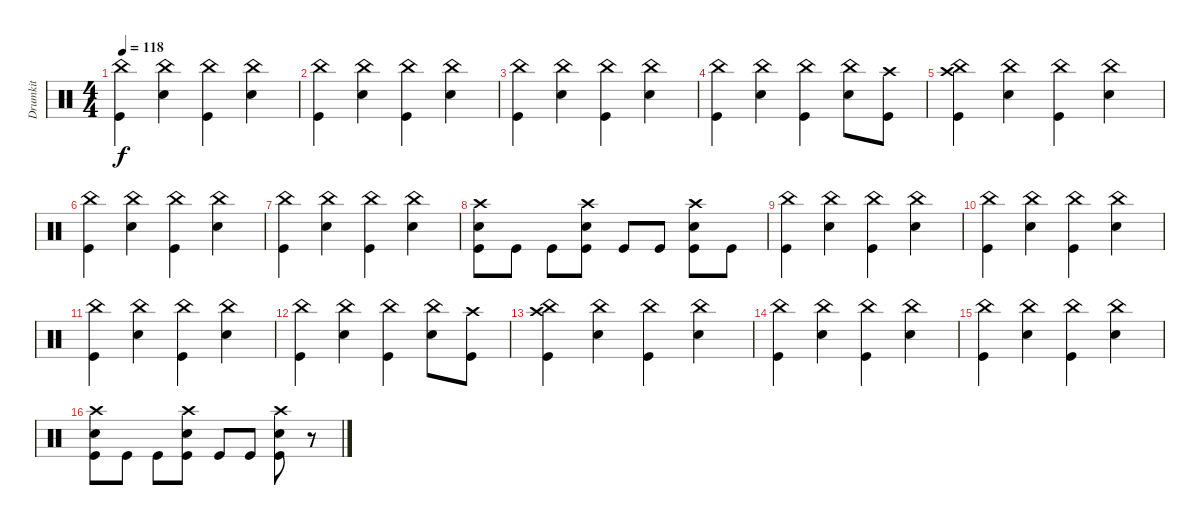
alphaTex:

\track ("Drumkit" "Drumkit") {instrument percussion}
\staff {score}
\articulation defaults
\ts (4 4)
\tempo 118
\clef neutral
\ks c
("China (hit)" "Kick (hit)").4{dy f} ("China (hit)" "Snare (hit) 2").4 ("China (hit)" "Kick (hit)").4 ("China (hit)" "Snare (hit) 2").4 |
("China (hit)" "Kick (hit)").4 ("China (hit)" "Snare (hit) 2").4 ("China (hit)" "Kick (hit)").4 ("China (hit)" "Snare (hit) 2").4 |
("China (hit)" "Kick (hit)").4 ("China (hit)" "Snare (hit) 2").4 ("China (hit)" "Kick (hit)").4 ("China (hit)" "Snare (hit) 2").4 |
("China (hit)" "Kick (hit)").4 ("China (hit)" "Snare (hit) 2").4 ("China (hit)" "Kick (hit)").4 ("China (hit)" "Snare (hit) 2").8 ("Kick (hit)" "Crash high (hit)").8 |
("China (hit)" "Kick (hit)" "Crash high (hit)").4 ("China (hit)" "Snare (hit) 2").4 ("China (hit)" "Kick (hit)").4 ("China (hit)" "Snare (hit) 2").4 |
("China (hit)" "Kick (hit)").4 ("China (hit)" "Snare (hit) 2").4 ("China (hit)" "Kick (hit)").4 ("China (hit)" "Snare (hit) 2").4 |
("China (hit)" "Kick (hit)").4 ("China (hit)" "Snare (hit) 2").4 ("China (hit)" "Kick (hit)").4 ("China (hit)" "Snare (hit) 2").4 |
("Crash high (hit)" "Kick (hit)" "Snare (hit) 2").8 "Kick (hit)".8 "Kick (hit)".8 ("Crash high (hit)" "Kick (hit)" "Snare (hit) 2").8 "Kick (hit)".8 "Kick (hit)".8 ("Crash high (hit)" "Kick (hit)" "Snare (hit) 2").8 "Kick (hit)".8 |
("China (hit)" "Kick (hit)").4 ("China (hit)" "Snare (hit) 2").4 ("China (hit)" "Kick (hit)").4 ("China (hit)" "Snare (hit) 2").4 |
("China (hit)" "Kick (hit)").4 ("China (hit)" "Snare (hit) 2").4 ("China (hit)" "Kick (hit)").4 ("China (hit)" "Snare (hit) 2").4 |
("China (hit)" "Kick (hit)").4 ("China (hit)" "Snare (hit) 2").4 ("China (hit)" "Kick (hit)").4 ("China (hit)" "Snare (hit) 2").4 |
("China (hit)" "Kick (hit)").4 ("China (hit)" "Snare (hit) 2").4 ("China (hit)" "Kick (hit)").4 ("China (hit)" "Snare (hit) 2").8 ("Kick (hit)" "Crash high (hit)").8 |
("China (hit)" "Kick (hit)" "Crash high (hit)").4 ("China (hit)" "Snare (hit) 2").4 ("China (hit)" "Kick (hit)").4 ("China (hit)" "Snare (hit) 2").4 |
("China (hit)" "Kick (hit)").4 ("China (hit)" "Snare (hit) 2").4 ("China (hit)" "Kick (hit)").4 ("China (hit)" "Snare (hit) 2").4 |
("China (hit)" "Kick (hit)").4 ("China (hit)" "Snare (hit) 2").4 ("China (hit)" "Kick (hit)").4 ("China (hit)" "Snare (hit) 2").4 |
("Crash high (hit)" "Kick (hit)" "Snare (hit) 2").8 "Kick (hit)".8 "Kick (hit)".8 ("Crash high (hit)" "Kick (hit)" "Snare (hit) 2").8 "Kick (hit)".8 "Kick (hit)".8 ("Crash high (hit)" "Kick (hit)" "Snare (hit) 2").8 r.8
